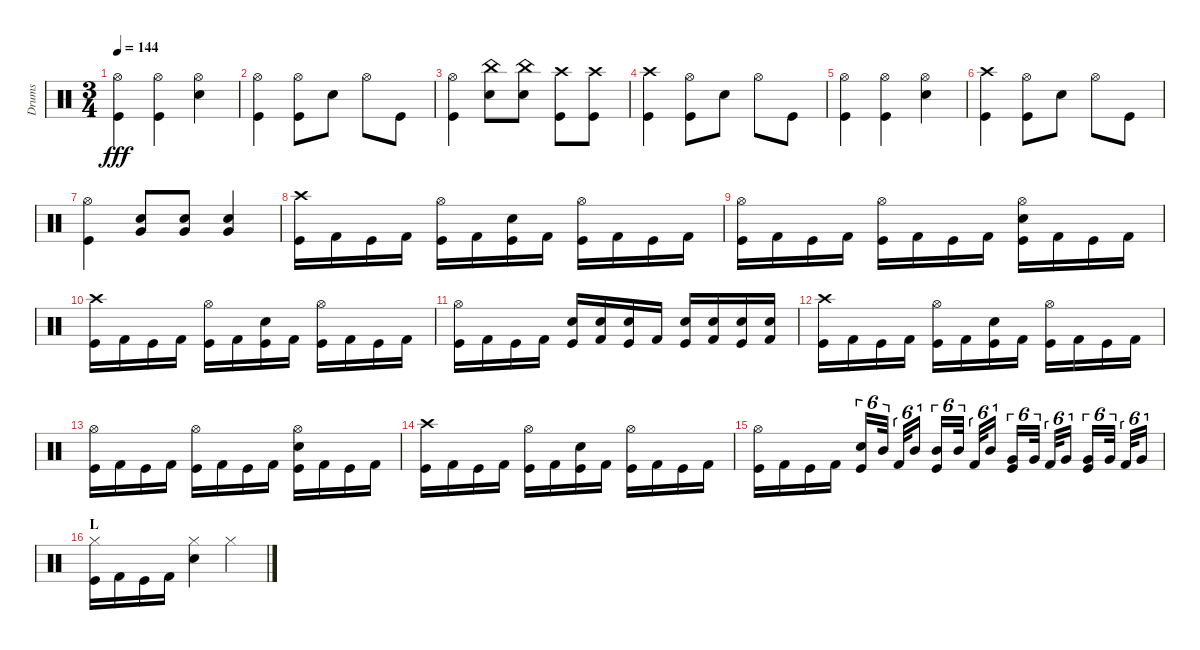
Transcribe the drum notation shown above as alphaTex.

\track ("Drums" "Drums") {instrument percussion}
\staff {score}
\articulation defaults
\ts (3 4)
\tempo 144
\clef neutral
\ks c
("Hi-Hat (open)" "Kick (hit)").4{dy fff} ("Hi-Hat (open)" "Kick (hit)").4 ("Hi-Hat (open)" "Snare (hit) 2").4 |
("Hi-Hat (open)" "Kick (hit)").4 ("Hi-Hat (open)" "Kick (hit)").8 "Snare (hit) 2".8 "Hi-Hat (open)".8 "Kick (hit)".8 |
("Hi-Hat (open)" "Kick (hit)").4 ("China (hit)" "Snare (hit) 2").8 ("China (hit)" "Snare (hit) 2").8 ("Crash high (hit)" "Kick (hit)").8 ("Crash high (hit)" "Kick (hit)").8 |
("Crash high (hit)" "Kick (hit)").4 ("Hi-Hat (open)" "Kick (hit)").8 "Snare (hit) 2".8 "Hi-Hat (open)".8 "Kick (hit)".8 |
("Hi-Hat (open)" "Kick (hit)").4 ("Hi-Hat (open)" "Kick (hit)").4 ("Hi-Hat (open)" "Snare (hit) 2").4 |
("Crash high (hit)" "Kick (hit)").4 ("Hi-Hat (open)" "Kick (hit)").8 "Snare (hit) 2".8 "Hi-Hat (open)".8 "Kick (hit)".8 |
("Hi-Hat (open)" "Kick (hit)").4 ("Very Low Tom (hit)" "Snare (hit) 2").8 ("Very Low Tom (hit)" "Snare (hit) 2").8 ("Very Low Tom (hit)" "Snare (hit) 2").4 |
("Crash high (hit)" "Kick (hit)").16 "Kick (hit) 2".16 "Kick (hit)".16 "Kick (hit) 2".16 ("Hi-Hat (open)" "Kick (hit)").16 "Kick (hit) 2".16 ("Snare (hit) 2" "Kick (hit)").16 "Kick (hit) 2".16 ("Hi-Hat (open)" "Kick (hit)").16 "Kick (hit) 2".16 "Kick (hit)".16 "Kick (hit) 2".16 |
("Hi-Hat (open)" "Kick (hit)").16 "Kick (hit) 2".16 "Kick (hit)".16 "Kick (hit) 2".16 ("Hi-Hat (open)" "Kick (hit)").16 "Kick (hit) 2".16 "Kick (hit)".16 "Kick (hit) 2".16 ("Hi-Hat (open)" "Snare (hit) 2" "Kick (hit)").16 "Kick (hit) 2".16 "Kick (hit)".16 "Kick (hit) 2".16 |
("Crash high (hit)" "Kick (hit)").16 "Kick (hit) 2".16 "Kick (hit)".16 "Kick (hit) 2".16 ("Hi-Hat (open)" "Kick (hit)").16 "Kick (hit) 2".16 ("Snare (hit) 2" "Kick (hit)").16 "Kick (hit) 2".16 ("Hi-Hat (open)" "Kick (hit)").16 "Kick (hit) 2".16 "Kick (hit)".16 "Kick (hit) 2".16 |
("Hi-Hat (open)" "Kick (hit)").16 "Kick (hit) 2".16 "Kick (hit)".16 "Kick (hit) 2".16 ("Snare (hit) 2" "Kick (hit)").16 ("Snare (hit) 2" "Kick (hit) 2").16 ("Snare (hit) 2" "Kick (hit)").16 "Kick (hit) 2".16 ("Snare (hit) 2" "Kick (hit)").16 ("Snare (hit) 2" "Kick (hit) 2").16 ("Snare (hit) 2" "Kick (hit)").16 ("Snare (hit) 2" "Kick (hit) 2").16 |
("Crash high (hit)" "Kick (hit)").16 "Kick (hit) 2".16 "Kick (hit)".16 "Kick (hit) 2".16 ("Hi-Hat (open)" "Kick (hit)").16 "Kick (hit) 2".16 ("Snare (hit) 2" "Kick (hit)").16 "Kick (hit) 2".16 ("Hi-Hat (open)" "Kick (hit)").16 "Kick (hit) 2".16 "Kick (hit)".16 "Kick (hit) 2".16 |
("Hi-Hat (open)" "Kick (hit)").16 "Kick (hit) 2".16 "Kick (hit)".16 "Kick (hit) 2".16 ("Hi-Hat (open)" "Kick (hit)").16 "Kick (hit) 2".16 "Kick (hit)".16 "Kick (hit) 2".16 ("Hi-Hat (open)" "Snare (hit) 2" "Kick (hit)").16 "Kick (hit) 2".16 "Kick (hit)".16 "Kick (hit) 2".16 |
("Crash high (hit)" "Kick (hit)").16 "Kick (hit) 2".16 "Kick (hit)".16 "Kick (hit) 2".16 ("Hi-Hat (open)" "Kick (hit)").16 "Kick (hit) 2".16 ("Snare (hit) 2" "Kick (hit)").16 "Kick (hit) 2".16 ("Hi-Hat (open)" "Kick (hit)").16 "Kick (hit) 2".16 "Kick (hit)".16 "Kick (hit) 2".16 |
("Hi-Hat (open)" "Kick (hit)").16 "Kick (hit) 2".16 "Kick (hit)".16 "Kick (hit) 2".16 ("Snare (hit) 2" "Kick (hit)").16{tu (6 4)} "Mid Tom (hit)".32{tu (6 4)} "Kick (hit) 2".32{tu (6 4)} "Mid Tom (hit)".16{tu (6 4)} ("Mid Tom (hit)" "Kick (hit)").16{tu (6 4)} "Mid Tom (hit)".32{tu (6 4)} "Kick (hit) 2".32{tu (6 4)} "Mid Tom (hit)".16{tu (6 4)} ("Very Low Tom (hit)" "Kick (hit)").16{tu (6 4)} "Very Low Tom (hit)".32{tu (6 4)} "Kick (hit) 2".32{tu (6 4)} "Very Low Tom (hit)".16{tu (6 4)} ("Very Low Tom (hit)" "Kick (hit)").16{tu (6 4)} "Very Low Tom (hit)".32{tu (6 4)} "Kick (hit) 2".32{tu (6 4)} "Very Low Tom (hit)".16{tu (6 4)} |
\section ("" "L")
("Hi-Hat (closed)" "Kick (hit)").16 "Kick (hit) 2".16 "Kick (hit)".16 "Kick (hit) 2".16 ("Hi-Hat (closed)" "Snare (hit) 2").4 "Hi-Hat (closed)".4
